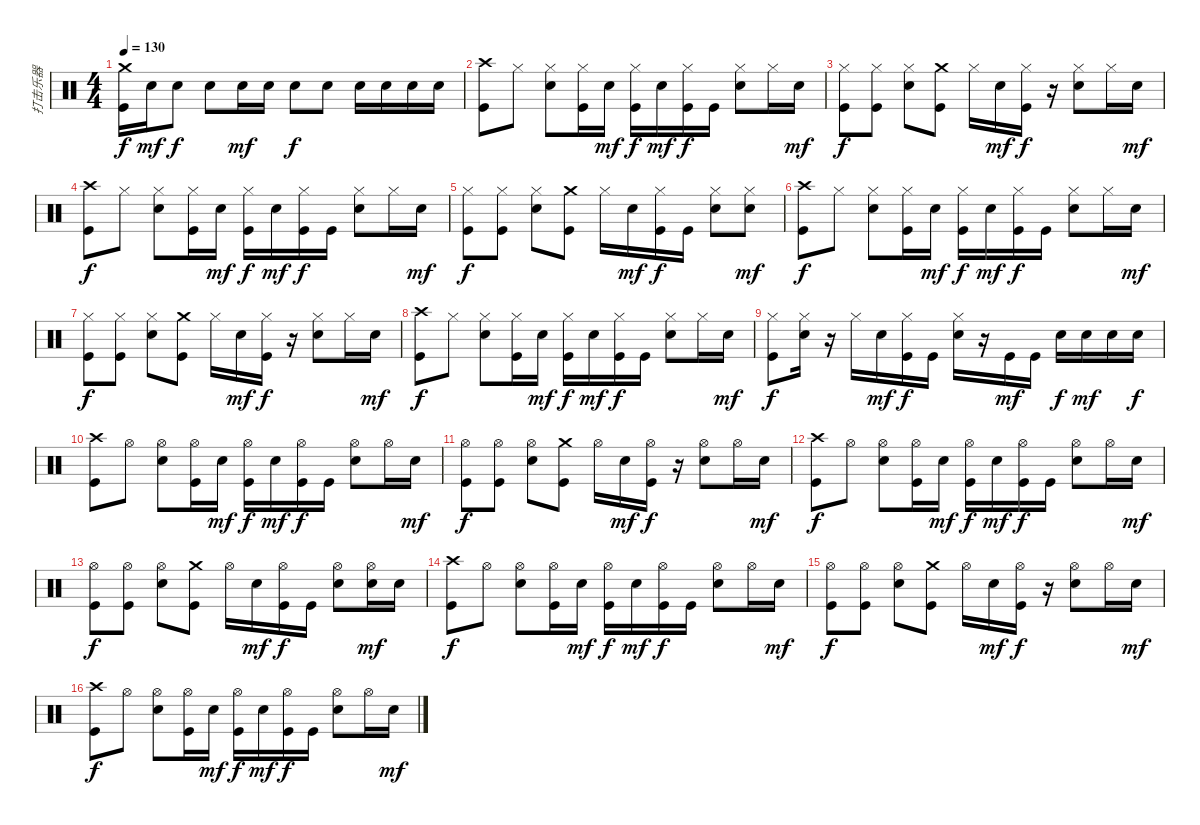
\track ("打击乐器" "打击乐器") {instrument percussion}
\staff {score}
\articulation defaults
\ts (4 4)
\tempo 130
\clef neutral
\ks c
("Crash medium (hit)" "Kick (hit)").16{dy f} "Electric Snare (hit)".16{dy mf} "Electric Snare (hit)".8{dy f} "Electric Snare (hit)".8 "Electric Snare (hit)".16{dy mf} "Electric Snare (hit)".16 "Electric Snare (hit)".8{dy f} "Electric Snare (hit)".8 "Electric Snare (hit)".16 "Electric Snare (hit)".16 "Electric Snare (hit)".16 "Electric Snare (hit)".16 |
("Crash high (hit)" "Kick (hit)").8 "Hi-Hat (closed)".8 ("Hi-Hat (closed)" "Electric Snare (hit)").8 ("Hi-Hat (closed)" "Kick (hit)").16 "Electric Snare (hit)".16{dy mf} ("Hi-Hat (closed)" "Kick (hit)").16{dy f} "Electric Snare (hit)".16{dy mf} ("Hi-Hat (closed)" "Kick (hit)").16{dy f} "Kick (hit)".16 ("Hi-Hat (closed)" "Electric Snare (hit)").8 "Hi-Hat (closed)".16 "Electric Snare (hit)".16{dy mf} |
("Hi-Hat (closed)" "Kick (hit)").8{dy f} ("Hi-Hat (closed)" "Kick (hit)").8 ("Hi-Hat (closed)" "Electric Snare (hit)").8 ("Crash medium (hit)" "Kick (hit)").8 "Hi-Hat (closed)".16 "Electric Snare (hit)".16{dy mf} ("Hi-Hat (closed)" "Kick (hit)").16{dy f} r.16 ("Hi-Hat (closed)" "Electric Snare (hit)").8 "Hi-Hat (closed)".16 "Electric Snare (hit)".16{dy mf} |
("Crash high (hit)" "Kick (hit)").8{dy f} "Hi-Hat (closed)".8 ("Hi-Hat (closed)" "Electric Snare (hit)").8 ("Hi-Hat (closed)" "Kick (hit)").16 "Electric Snare (hit)".16{dy mf} ("Hi-Hat (closed)" "Kick (hit)").16{dy f} "Electric Snare (hit)".16{dy mf} ("Hi-Hat (closed)" "Kick (hit)").16{dy f} "Kick (hit)".16 ("Hi-Hat (closed)" "Electric Snare (hit)").8 "Hi-Hat (closed)".16 "Electric Snare (hit)".16{dy mf} |
("Hi-Hat (closed)" "Kick (hit)").8{dy f} ("Hi-Hat (closed)" "Kick (hit)").8 ("Hi-Hat (closed)" "Electric Snare (hit)").8 ("Crash medium (hit)" "Kick (hit)").8 "Hi-Hat (closed)".16 "Electric Snare (hit)".16{dy mf} ("Hi-Hat (closed)" "Kick (hit)").16{dy f} "Kick (hit)".16 ("Hi-Hat (closed)" "Electric Snare (hit)").8 ("Hi-Hat (closed)" "Electric Snare (hit)").8{dy mf} |
("Crash high (hit)" "Kick (hit)").8{dy f} "Hi-Hat (closed)".8 ("Hi-Hat (closed)" "Electric Snare (hit)").8 ("Hi-Hat (closed)" "Kick (hit)").16 "Electric Snare (hit)".16{dy mf} ("Hi-Hat (closed)" "Kick (hit)").16{dy f} "Electric Snare (hit)".16{dy mf} ("Hi-Hat (closed)" "Kick (hit)").16{dy f} "Kick (hit)".16 ("Hi-Hat (closed)" "Electric Snare (hit)").8 "Hi-Hat (closed)".16 "Electric Snare (hit)".16{dy mf} |
("Hi-Hat (closed)" "Kick (hit)").8{dy f} ("Hi-Hat (closed)" "Kick (hit)").8 ("Hi-Hat (closed)" "Electric Snare (hit)").8 ("Crash medium (hit)" "Kick (hit)").8 "Hi-Hat (closed)".16 "Electric Snare (hit)".16{dy mf} ("Hi-Hat (closed)" "Kick (hit)").16{dy f} r.16 ("Hi-Hat (closed)" "Electric Snare (hit)").8 "Hi-Hat (closed)".16 "Electric Snare (hit)".16{dy mf} |
("Crash high (hit)" "Kick (hit)").8{dy f} "Hi-Hat (closed)".8 ("Hi-Hat (closed)" "Electric Snare (hit)").8 ("Hi-Hat (closed)" "Kick (hit)").16 "Electric Snare (hit)".16{dy mf} ("Hi-Hat (closed)" "Kick (hit)").16{dy f} "Electric Snare (hit)".16{dy mf} ("Hi-Hat (closed)" "Kick (hit)").16{dy f} "Kick (hit)".16 ("Hi-Hat (closed)" "Electric Snare (hit)").8 "Hi-Hat (closed)".16 "Electric Snare (hit)".16{dy mf} |
("Hi-Hat (closed)" "Kick (hit)").8{dy f} ("Hi-Hat (closed)" "Electric Snare (hit)").16 r.16 "Hi-Hat (closed)".16 "Electric Snare (hit)".16{dy mf} ("Hi-Hat (closed)" "Kick (hit)").16{dy f} "Kick (hit)".16 ("Hi-Hat (closed)" "Electric Snare (hit)").16 r.16 "Kick (hit)".16{dy mf} "Kick (hit)".16 "Electric Snare (hit)".16{dy f} "Electric Snare (hit)".16{dy mf} "Electric Snare (hit)".16 "Electric Snare (hit)".16{dy f} |
("Crash high (hit)" "Kick (hit)").8 "Hi-Hat (open)".8 ("Hi-Hat (open)" "Electric Snare (hit)").8 ("Hi-Hat (open)" "Kick (hit)").16 "Electric Snare (hit)".16{dy mf} ("Hi-Hat (open)" "Kick (hit)").16{dy f} "Electric Snare (hit)".16{dy mf} ("Hi-Hat (open)" "Kick (hit)").16{dy f} "Kick (hit)".16 ("Hi-Hat (open)" "Electric Snare (hit)").8 "Hi-Hat (open)".16 "Electric Snare (hit)".16{dy mf} |
("Hi-Hat (open)" "Kick (hit)").8{dy f} ("Hi-Hat (open)" "Kick (hit)").8 ("Hi-Hat (open)" "Electric Snare (hit)").8 ("Crash medium (hit)" "Kick (hit)").8 "Hi-Hat (open)".16 "Electric Snare (hit)".16{dy mf} ("Hi-Hat (open)" "Kick (hit)").16{dy f} r.16 ("Hi-Hat (open)" "Electric Snare (hit)").8 "Hi-Hat (open)".16 "Electric Snare (hit)".16{dy mf} |
("Crash high (hit)" "Kick (hit)").8{dy f} "Hi-Hat (open)".8 ("Hi-Hat (open)" "Electric Snare (hit)").8 ("Hi-Hat (open)" "Kick (hit)").16 "Electric Snare (hit)".16{dy mf} ("Hi-Hat (open)" "Kick (hit)").16{dy f} "Electric Snare (hit)".16{dy mf} ("Hi-Hat (open)" "Kick (hit)").16{dy f} "Kick (hit)".16 ("Hi-Hat (open)" "Electric Snare (hit)").8 "Hi-Hat (open)".16 "Electric Snare (hit)".16{dy mf} |
("Hi-Hat (open)" "Kick (hit)").8{dy f} ("Hi-Hat (open)" "Kick (hit)").8 ("Hi-Hat (open)" "Electric Snare (hit)").8 ("Crash medium (hit)" "Kick (hit)").8 "Hi-Hat (open)".16 "Electric Snare (hit)".16{dy mf} ("Hi-Hat (open)" "Kick (hit)").16{dy f} "Kick (hit)".16 ("Hi-Hat (open)" "Electric Snare (hit)").8 ("Hi-Hat (open)" "Electric Snare (hit)").16{dy mf} "Electric Snare (hit)".16 |
("Crash high (hit)" "Kick (hit)").8{dy f} "Hi-Hat (open)".8 ("Hi-Hat (open)" "Electric Snare (hit)").8 ("Hi-Hat (open)" "Kick (hit)").16 "Electric Snare (hit)".16{dy mf} ("Hi-Hat (open)" "Kick (hit)").16{dy f} "Electric Snare (hit)".16{dy mf} ("Hi-Hat (open)" "Kick (hit)").16{dy f} "Kick (hit)".16 ("Hi-Hat (open)" "Electric Snare (hit)").8 "Hi-Hat (open)".16 "Electric Snare (hit)".16{dy mf} |
("Hi-Hat (open)" "Kick (hit)").8{dy f} ("Hi-Hat (open)" "Kick (hit)").8 ("Hi-Hat (open)" "Electric Snare (hit)").8 ("Crash medium (hit)" "Kick (hit)").8 "Hi-Hat (open)".16 "Electric Snare (hit)".16{dy mf} ("Hi-Hat (open)" "Kick (hit)").16{dy f} r.16 ("Hi-Hat (open)" "Electric Snare (hit)").8 "Hi-Hat (open)".16 "Electric Snare (hit)".16{dy mf} |
("Crash high (hit)" "Kick (hit)").8{dy f} "Hi-Hat (open)".8 ("Hi-Hat (open)" "Electric Snare (hit)").8 ("Hi-Hat (open)" "Kick (hit)").16 "Electric Snare (hit)".16{dy mf} ("Hi-Hat (open)" "Kick (hit)").16{dy f} "Electric Snare (hit)".16{dy mf} ("Hi-Hat (open)" "Kick (hit)").16{dy f} "Kick (hit)".16 ("Hi-Hat (open)" "Electric Snare (hit)").8 "Hi-Hat (open)".16 "Electric Snare (hit)".16{dy mf}
